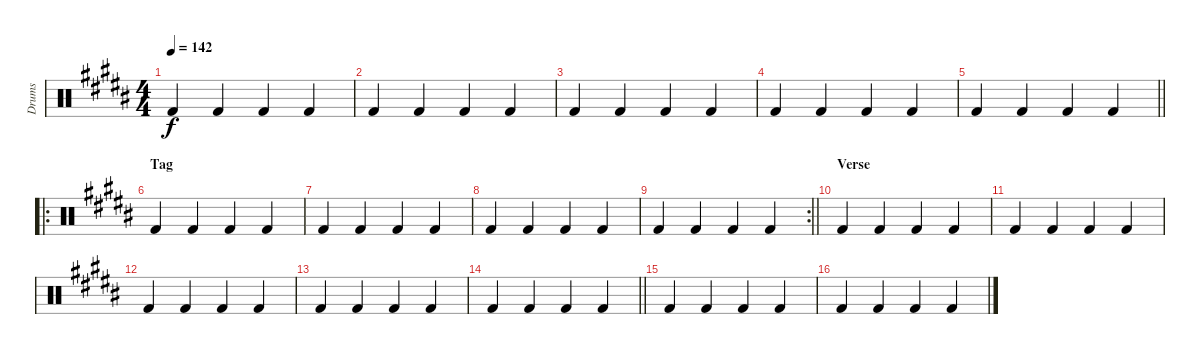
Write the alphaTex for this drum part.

\track ("Drums" "Drums") {instrument percussion}
\staff {score}
\articulation defaults
\ts (4 4)
\tempo 142
\clef neutral
\ks b "Kick (hit) 2".4{dy f} "Kick (hit) 2".4 "Kick (hit) 2".4 "Kick (hit) 2".4
|
"Kick (hit) 2".4 "Kick (hit) 2".4 "Kick (hit) 2".4 "Kick (hit) 2".4 |
"Kick (hit) 2".4 "Kick (hit) 2".4 "Kick (hit) 2".4 "Kick (hit) 2".4 |
"Kick (hit) 2".4 "Kick (hit) 2".4 "Kick (hit) 2".4 "Kick (hit) 2".4 |
\barLineRight lightlight "Kick (hit) 2".4 "Kick (hit) 2".4 "Kick (hit) 2".4 "Kick (hit) 2".4
|
\ro
\section ("" "Tag")
"Kick (hit) 2".4 "Kick (hit) 2".4 "Kick (hit) 2".4 "Kick (hit) 2".4 |
"Kick (hit) 2".4 "Kick (hit) 2".4 "Kick (hit) 2".4 "Kick (hit) 2".4 |
"Kick (hit) 2".4 "Kick (hit) 2".4 "Kick (hit) 2".4 "Kick (hit) 2".4 |
\rc 2
\barLineRight lightlight "Kick (hit) 2".4 "Kick (hit) 2".4 "Kick (hit) 2".4 "Kick (hit) 2".4
|
\section ("" "Verse")
"Kick (hit) 2".4 "Kick (hit) 2".4 "Kick (hit) 2".4 "Kick (hit) 2".4 |
"Kick (hit) 2".4 "Kick (hit) 2".4 "Kick (hit) 2".4 "Kick (hit) 2".4 |
"Kick (hit) 2".4 "Kick (hit) 2".4 "Kick (hit) 2".4 "Kick (hit) 2".4 |
"Kick (hit) 2".4 "Kick (hit) 2".4 "Kick (hit) 2".4 "Kick (hit) 2".4 |
\barLineRight lightlight "Kick (hit) 2".4 "Kick (hit) 2".4 "Kick (hit) 2".4 "Kick (hit) 2".4
|
"Kick (hit) 2".4 "Kick (hit) 2".4 "Kick (hit) 2".4 "Kick (hit) 2".4 |
"Kick (hit) 2".4 "Kick (hit) 2".4 "Kick (hit) 2".4 "Kick (hit) 2".4
